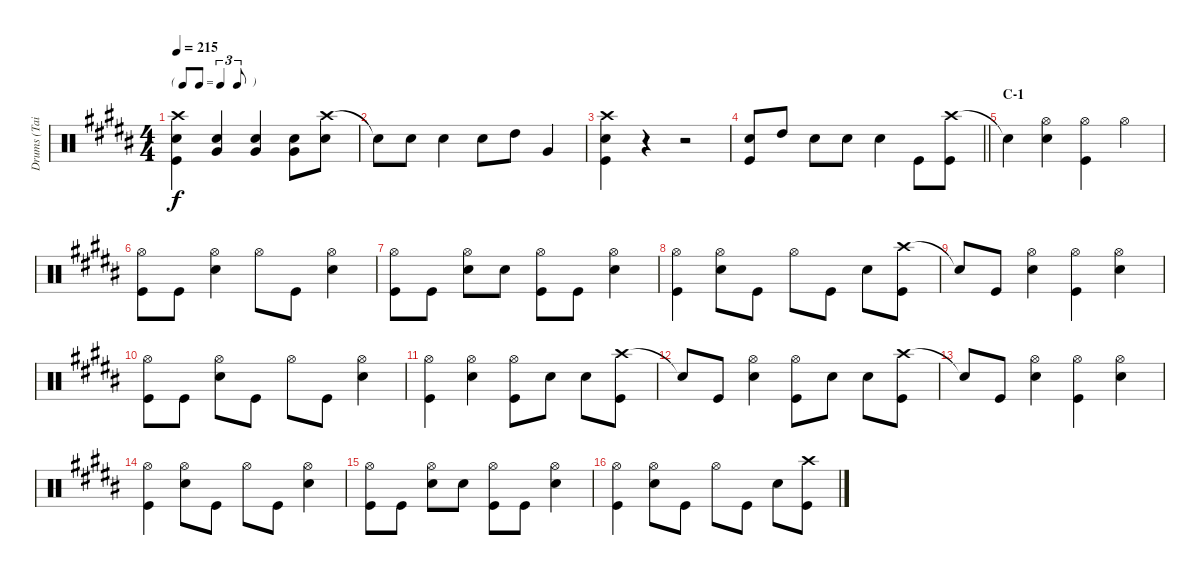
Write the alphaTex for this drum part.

\track ("Drums (Tainaka Ritsu)" "Drums (Tai") {instrument percussion}
\staff {score}
\articulation defaults
\ts (4 4)
\tf triplet8th
\tempo 215
\clef neutral
\ks b
("Crash high (hit)" "Snare (hit) 2" "Kick (hit)").4{dy f} ("Snare (hit) 2" "Very Low Tom (hit)").4 ("Snare (hit) 2" "Very Low Tom (hit)").4 ("Snare (hit) 2" "Very Low Tom (hit)").8 ("Crash high (hit)" "Snare (hit) 2").8 |
"Snare (hit)"{t}.8 "Snare (hit) 2".8 "Snare (hit) 2".4 "Snare (hit) 2".8 "High Tom (hit)".8 "Very Low Tom (hit)".4 |
("Crash high (hit)" "Snare (hit) 2" "Kick (hit)").4 r.4 r.2 |
\barLineRight lightlight
("Snare (hit) 2" "Kick (hit)").8 "High Tom (hit)".8 "Snare (hit) 2".8 "Snare (hit) 2".8 "Snare (hit) 2".4 "Kick (hit)".8 ("Crash high (hit)" "Kick (hit)").8 |
\section ("" "C-1")
"Snare (hit)"{t}.4 ("Hi-Hat (open)" "Snare (hit) 2").4 ("Hi-Hat (open)" "Kick (hit)").4 "Hi-Hat (open)".4 |
("Hi-Hat (open)" "Kick (hit)").8 "Kick (hit)".8 ("Hi-Hat (open)" "Snare (hit) 2").4 "Hi-Hat (open)".8 "Kick (hit)".8 ("Hi-Hat (open)" "Snare (hit) 2").4 |
("Hi-Hat (open)" "Kick (hit)").8 "Kick (hit)".8 ("Hi-Hat (open)" "Snare (hit) 2").8 "Snare (hit) 2".8 ("Hi-Hat (open)" "Kick (hit)").8 "Kick (hit)".8 ("Hi-Hat (open)" "Snare (hit) 2").4 |
("Hi-Hat (open)" "Kick (hit)").4 ("Hi-Hat (open)" "Snare (hit) 2").8 "Kick (hit)".8 "Hi-Hat (open)".8 "Kick (hit)".8 "Snare (hit) 2".8 ("Crash high (hit)" "Kick (hit)").8 |
"Snare (hit)"{t}.8 "Kick (hit)".8 ("Hi-Hat (open)" "Snare (hit) 2").4 ("Hi-Hat (open)" "Kick (hit)").4 ("Hi-Hat (open)" "Snare (hit) 2").4 |
("Hi-Hat (open)" "Kick (hit)").8 "Kick (hit)".8 ("Hi-Hat (open)" "Snare (hit) 2").8 "Kick (hit)".8 "Hi-Hat (open)".8 "Kick (hit)".8 ("Hi-Hat (open)" "Snare (hit) 2").4 |
("Hi-Hat (open)" "Kick (hit)").4 ("Hi-Hat (open)" "Snare (hit) 2").4 ("Hi-Hat (open)" "Kick (hit)").8 "Snare (hit) 2".8 "Snare (hit) 2".8 ("Crash high (hit)" "Kick (hit)").8 |
"Snare (hit)"{t}.8 "Kick (hit)".8 ("Hi-Hat (open)" "Snare (hit) 2").4 ("Hi-Hat (open)" "Kick (hit)").8 "Snare (hit) 2".8 "Snare (hit) 2".8 ("Crash high (hit)" "Kick (hit)").8 |
"Snare (hit)"{t}.8 "Kick (hit)".8 ("Hi-Hat (open)" "Snare (hit) 2").4 ("Hi-Hat (open)" "Kick (hit)").4 ("Hi-Hat (open)" "Snare (hit) 2").4 |
("Hi-Hat (open)" "Kick (hit)").4 ("Hi-Hat (open)" "Snare (hit) 2").8 "Kick (hit)".8 "Hi-Hat (open)".8 "Kick (hit)".8 ("Hi-Hat (open)" "Snare (hit) 2").4 |
("Hi-Hat (open)" "Kick (hit)").8 "Kick (hit)".8 ("Hi-Hat (open)" "Snare (hit) 2").8 "Snare (hit) 2".8 ("Hi-Hat (open)" "Kick (hit)").8 "Kick (hit)".8 ("Hi-Hat (open)" "Snare (hit) 2").4 |
("Hi-Hat (open)" "Kick (hit)").4 ("Hi-Hat (open)" "Snare (hit) 2").8 "Kick (hit)".8 "Hi-Hat (open)".8 "Kick (hit)".8 "Snare (hit) 2".8 ("Crash high (hit)" "Kick (hit)").8
